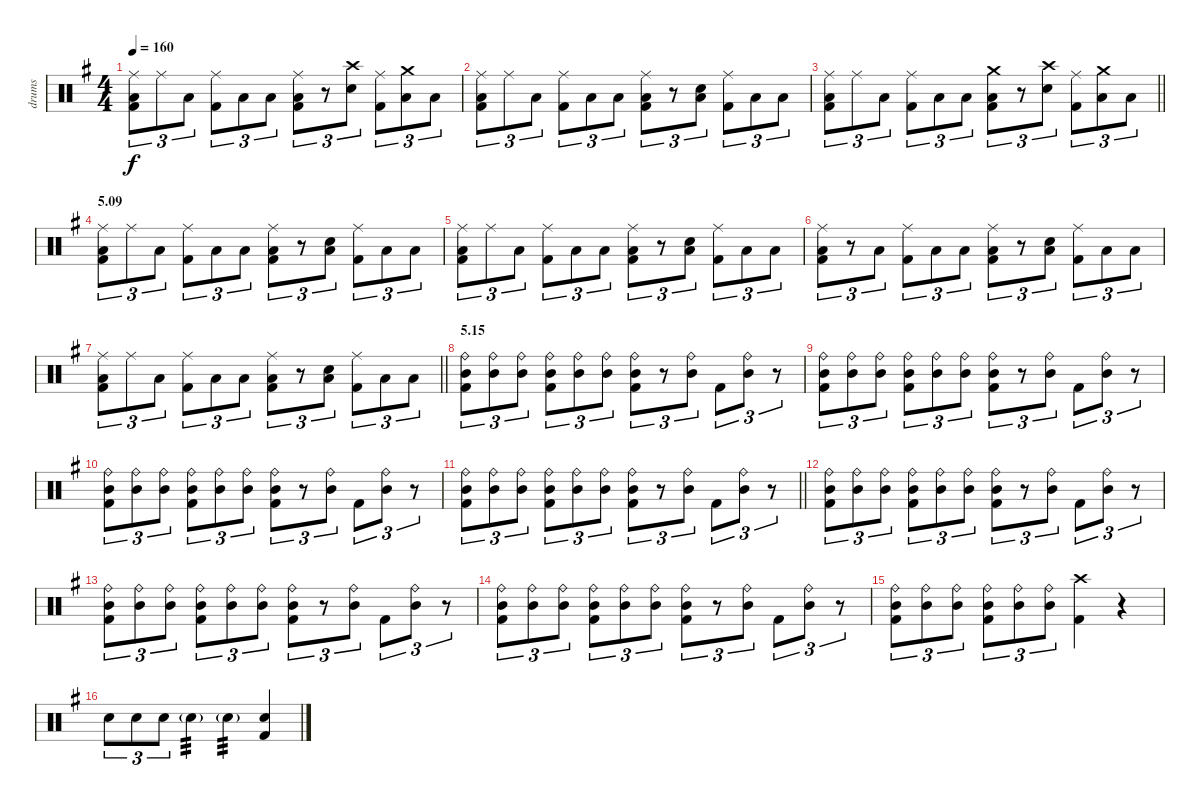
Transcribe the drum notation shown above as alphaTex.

\track ("drums" "drums") {instrument percussion}
\staff {score}
\articulation defaults
\ts (4 4)
\tempo 160
\clef neutral
\ks g
("Ride (middle)" "Low Tom (hit)" "Kick (hit) 2").8{tu (3 2) dy f} "Ride (middle)".8{tu (3 2)} "Low Tom (hit)".8{tu (3 2)} ("Ride (middle)" "Kick (hit) 2").8{tu (3 2)} "Low Tom (hit)".8{tu (3 2)} "Low Tom (hit)".8{tu (3 2)} ("Ride (middle)" "Low Tom (hit)" "Kick (hit) 2").8{tu (3 2)} r.8{tu (3 2)} ("Crash high (hit)" "Electric Snare (hit)").8{tu (3 2)} ("Ride (middle)" "Kick (hit) 2").8{tu (3 2)} ("Crash medium (hit)" "Low Tom (hit)").8{tu (3 2)} "Low Tom (hit)".8{tu (3 2)} |
("Ride (middle)" "Low Tom (hit)" "Kick (hit) 2").8{tu (3 2)} "Ride (middle)".8{tu (3 2)} "Low Tom (hit)".8{tu (3 2)} ("Ride (middle)" "Kick (hit) 2").8{tu (3 2)} "Low Tom (hit)".8{tu (3 2)} "Low Tom (hit)".8{tu (3 2)} ("Ride (middle)" "Low Tom (hit)" "Kick (hit) 2").8{tu (3 2)} r.8{tu (3 2)} ("Low Tom (hit)" "Electric Snare (hit)").8{tu (3 2)} ("Ride (middle)" "Kick (hit) 2").8{tu (3 2)} "Low Tom (hit)".8{tu (3 2)} "Low Tom (hit)".8{tu (3 2)} |
\barLineRight lightlight
("Ride (middle)" "Low Tom (hit)" "Kick (hit) 2").8{tu (3 2)} "Ride (middle)".8{tu (3 2)} "Low Tom (hit)".8{tu (3 2)} ("Ride (middle)" "Kick (hit) 2").8{tu (3 2)} "Low Tom (hit)".8{tu (3 2)} "Low Tom (hit)".8{tu (3 2)} ("Crash medium (hit)" "Low Tom (hit)" "Kick (hit) 2").8{tu (3 2)} r.8{tu (3 2)} ("Crash high (hit)" "Electric Snare (hit)").8{tu (3 2)} ("Ride (middle)" "Kick (hit) 2").8{tu (3 2)} ("Crash medium (hit)" "Low Tom (hit)").8{tu (3 2)} "Low Tom (hit)".8{tu (3 2)} |
\section ("" "5.09")
("Ride (middle)" "Low Tom (hit)" "Kick (hit) 2").8{tu (3 2)} "Ride (middle)".8{tu (3 2)} "Low Tom (hit)".8{tu (3 2)} ("Ride (middle)" "Kick (hit) 2").8{tu (3 2)} "Low Tom (hit)".8{tu (3 2)} "Low Tom (hit)".8{tu (3 2)} ("Ride (middle)" "Low Tom (hit)" "Kick (hit) 2").8{tu (3 2)} r.8{tu (3 2)} ("Low Tom (hit)" "Electric Snare (hit)").8{tu (3 2)} ("Ride (middle)" "Kick (hit) 2").8{tu (3 2)} "Low Tom (hit)".8{tu (3 2)} "Low Tom (hit)".8{tu (3 2)} |
("Ride (middle)" "Low Tom (hit)" "Kick (hit) 2").8{tu (3 2)} "Ride (middle)".8{tu (3 2)} "Low Tom (hit)".8{tu (3 2)} ("Ride (middle)" "Kick (hit) 2").8{tu (3 2)} "Low Tom (hit)".8{tu (3 2)} "Low Tom (hit)".8{tu (3 2)} ("Ride (middle)" "Low Tom (hit)" "Kick (hit) 2").8{tu (3 2)} r.8{tu (3 2)} ("Low Tom (hit)" "Electric Snare (hit)").8{tu (3 2)} ("Ride (middle)" "Kick (hit) 2").8{tu (3 2)} "Low Tom (hit)".8{tu (3 2)} "Low Tom (hit)".8{tu (3 2)} |
("Ride (middle)" "Low Tom (hit)" "Kick (hit) 2").8{tu (3 2)} r.8{tu (3 2)} "Low Tom (hit)".8{tu (3 2)} ("Ride (middle)" "Kick (hit) 2").8{tu (3 2)} "Low Tom (hit)".8{tu (3 2)} "Low Tom (hit)".8{tu (3 2)} ("Ride (middle)" "Low Tom (hit)" "Kick (hit) 2").8{tu (3 2)} r.8{tu (3 2)} ("Low Tom (hit)" "Electric Snare (hit)").8{tu (3 2)} ("Ride (middle)" "Kick (hit) 2").8{tu (3 2)} "Low Tom (hit)".8{tu (3 2)} "Low Tom (hit)".8{tu (3 2)} |
\barLineRight lightlight
("Ride (middle)" "Low Tom (hit)" "Kick (hit) 2").8{tu (3 2)} "Ride (middle)".8{tu (3 2)} "Low Tom (hit)".8{tu (3 2)} ("Ride (middle)" "Kick (hit) 2").8{tu (3 2)} "Low Tom (hit)".8{tu (3 2)} "Low Tom (hit)".8{tu (3 2)} ("Ride (middle)" "Low Tom (hit)" "Kick (hit) 2").8{tu (3 2)} r.8{tu (3 2)} ("Low Tom (hit)" "Electric Snare (hit)").8{tu (3 2)} ("Ride (middle)" "Kick (hit) 2").8{tu (3 2)} "Low Tom (hit)".8{tu (3 2)} "Low Tom (hit)".8{tu (3 2)} |
\section ("" "5.15")
("Ride (bell)" "Mid Tom (hit)" "Kick (hit) 2").8{tu (3 2)} ("Ride (bell)" "Mid Tom (hit)").8{tu (3 2)} ("Ride (bell)" "Mid Tom (hit)").8{tu (3 2)} ("Ride (bell)" "Mid Tom (hit)" "Kick (hit) 2").8{tu (3 2)} ("Ride (bell)" "Mid Tom (hit)").8{tu (3 2)} ("Ride (bell)" "Mid Tom (hit)").8{tu (3 2)} ("Ride (bell)" "Mid Tom (hit)" "Kick (hit) 2").8{tu (3 2)} r.8{tu (3 2)} ("Ride (bell)" "Mid Tom (hit)").8{tu (3 2)} "Kick (hit) 2".8{tu (3 2)} ("Ride (bell)" "Mid Tom (hit)").8{tu (3 2)} r.8{tu (3 2)} |
("Ride (bell)" "Mid Tom (hit)" "Kick (hit) 2").8{tu (3 2)} ("Ride (bell)" "Mid Tom (hit)").8{tu (3 2)} ("Ride (bell)" "Mid Tom (hit)").8{tu (3 2)} ("Ride (bell)" "Mid Tom (hit)" "Kick (hit) 2").8{tu (3 2)} ("Ride (bell)" "Mid Tom (hit)").8{tu (3 2)} ("Ride (bell)" "Mid Tom (hit)").8{tu (3 2)} ("Ride (bell)" "Mid Tom (hit)" "Kick (hit) 2").8{tu (3 2)} r.8{tu (3 2)} ("Ride (bell)" "Mid Tom (hit)").8{tu (3 2)} "Kick (hit) 2".8{tu (3 2)} ("Ride (bell)" "Mid Tom (hit)").8{tu (3 2)} r.8{tu (3 2)} |
("Ride (bell)" "Mid Tom (hit)" "Kick (hit) 2").8{tu (3 2)} ("Ride (bell)" "Mid Tom (hit)").8{tu (3 2)} ("Ride (bell)" "Mid Tom (hit)").8{tu (3 2)} ("Ride (bell)" "Mid Tom (hit)" "Kick (hit) 2").8{tu (3 2)} ("Ride (bell)" "Mid Tom (hit)").8{tu (3 2)} ("Ride (bell)" "Mid Tom (hit)").8{tu (3 2)} ("Ride (bell)" "Mid Tom (hit)" "Kick (hit) 2").8{tu (3 2)} r.8{tu (3 2)} ("Ride (bell)" "Mid Tom (hit)").8{tu (3 2)} "Kick (hit) 2".8{tu (3 2)} ("Ride (bell)" "Mid Tom (hit)").8{tu (3 2)} r.8{tu (3 2)} |
\barLineRight lightlight
("Ride (bell)" "Mid Tom (hit)" "Kick (hit) 2").8{tu (3 2)} ("Ride (bell)" "Mid Tom (hit)").8{tu (3 2)} ("Ride (bell)" "Mid Tom (hit)").8{tu (3 2)} ("Ride (bell)" "Mid Tom (hit)" "Kick (hit) 2").8{tu (3 2)} ("Ride (bell)" "Mid Tom (hit)").8{tu (3 2)} ("Ride (bell)" "Mid Tom (hit)").8{tu (3 2)} ("Ride (bell)" "Mid Tom (hit)" "Kick (hit) 2").8{tu (3 2)} r.8{tu (3 2)} ("Ride (bell)" "Mid Tom (hit)").8{tu (3 2)} "Kick (hit) 2".8{tu (3 2)} ("Ride (bell)" "Mid Tom (hit)").8{tu (3 2)} r.8{tu (3 2)} |
("Ride (bell)" "Mid Tom (hit)" "Kick (hit) 2").8{tu (3 2)} ("Ride (bell)" "Mid Tom (hit)").8{tu (3 2)} ("Ride (bell)" "Mid Tom (hit)").8{tu (3 2)} ("Ride (bell)" "Mid Tom (hit)" "Kick (hit) 2").8{tu (3 2)} ("Ride (bell)" "Mid Tom (hit)").8{tu (3 2)} ("Ride (bell)" "Mid Tom (hit)").8{tu (3 2)} ("Ride (bell)" "Mid Tom (hit)" "Kick (hit) 2").8{tu (3 2)} r.8{tu (3 2)} ("Ride (bell)" "Mid Tom (hit)").8{tu (3 2)} "Kick (hit) 2".8{tu (3 2)} ("Ride (bell)" "Mid Tom (hit)").8{tu (3 2)} r.8{tu (3 2)} |
("Ride (bell)" "Mid Tom (hit)" "Kick (hit) 2").8{tu (3 2)} ("Ride (bell)" "Mid Tom (hit)").8{tu (3 2)} ("Ride (bell)" "Mid Tom (hit)").8{tu (3 2)} ("Ride (bell)" "Mid Tom (hit)" "Kick (hit) 2").8{tu (3 2)} ("Ride (bell)" "Mid Tom (hit)").8{tu (3 2)} ("Ride (bell)" "Mid Tom (hit)").8{tu (3 2)} ("Ride (bell)" "Mid Tom (hit)" "Kick (hit) 2").8{tu (3 2)} r.8{tu (3 2)} ("Ride (bell)" "Mid Tom (hit)").8{tu (3 2)} "Kick (hit) 2".8{tu (3 2)} ("Ride (bell)" "Mid Tom (hit)").8{tu (3 2)} r.8{tu (3 2)} |
("Ride (bell)" "Mid Tom (hit)" "Kick (hit) 2").8{tu (3 2)} ("Ride (bell)" "Mid Tom (hit)").8{tu (3 2)} ("Ride (bell)" "Mid Tom (hit)").8{tu (3 2)} ("Ride (bell)" "Mid Tom (hit)" "Kick (hit) 2").8{tu (3 2)} ("Ride (bell)" "Mid Tom (hit)").8{tu (3 2)} ("Ride (bell)" "Mid Tom (hit)").8{tu (3 2)} ("Ride (bell)" "Mid Tom (hit)" "Kick (hit) 2").8{tu (3 2)} r.8{tu (3 2)} ("Ride (bell)" "Mid Tom (hit)").8{tu (3 2)} "Kick (hit) 2".8{tu (3 2)} ("Ride (bell)" "Mid Tom (hit)").8{tu (3 2)} r.8{tu (3 2)} |
("Ride (bell)" "Mid Tom (hit)" "Kick (hit) 2").8{tu (3 2)} ("Ride (bell)" "Mid Tom (hit)").8{tu (3 2)} ("Ride (bell)" "Mid Tom (hit)").8{tu (3 2)} ("Ride (bell)" "Mid Tom (hit)" "Kick (hit) 2").8{tu (3 2)} ("Ride (bell)" "Mid Tom (hit)").8{tu (3 2)} ("Ride (bell)" "Mid Tom (hit)").8{tu (3 2)} ("Crash high (hit)" "Kick (hit) 2").4 r.4 |
"Electric Snare (hit)".8{tu (3 2)} "Electric Snare (hit)".8{tu (3 2)} "Electric Snare (hit)".8{tu (3 2)} "Electric Snare (hit)"{g}.4{tp 3} "Electric Snare (hit)"{g}.4{tp 3} ("Electric Snare (hit)" "Kick (hit) 2").4
